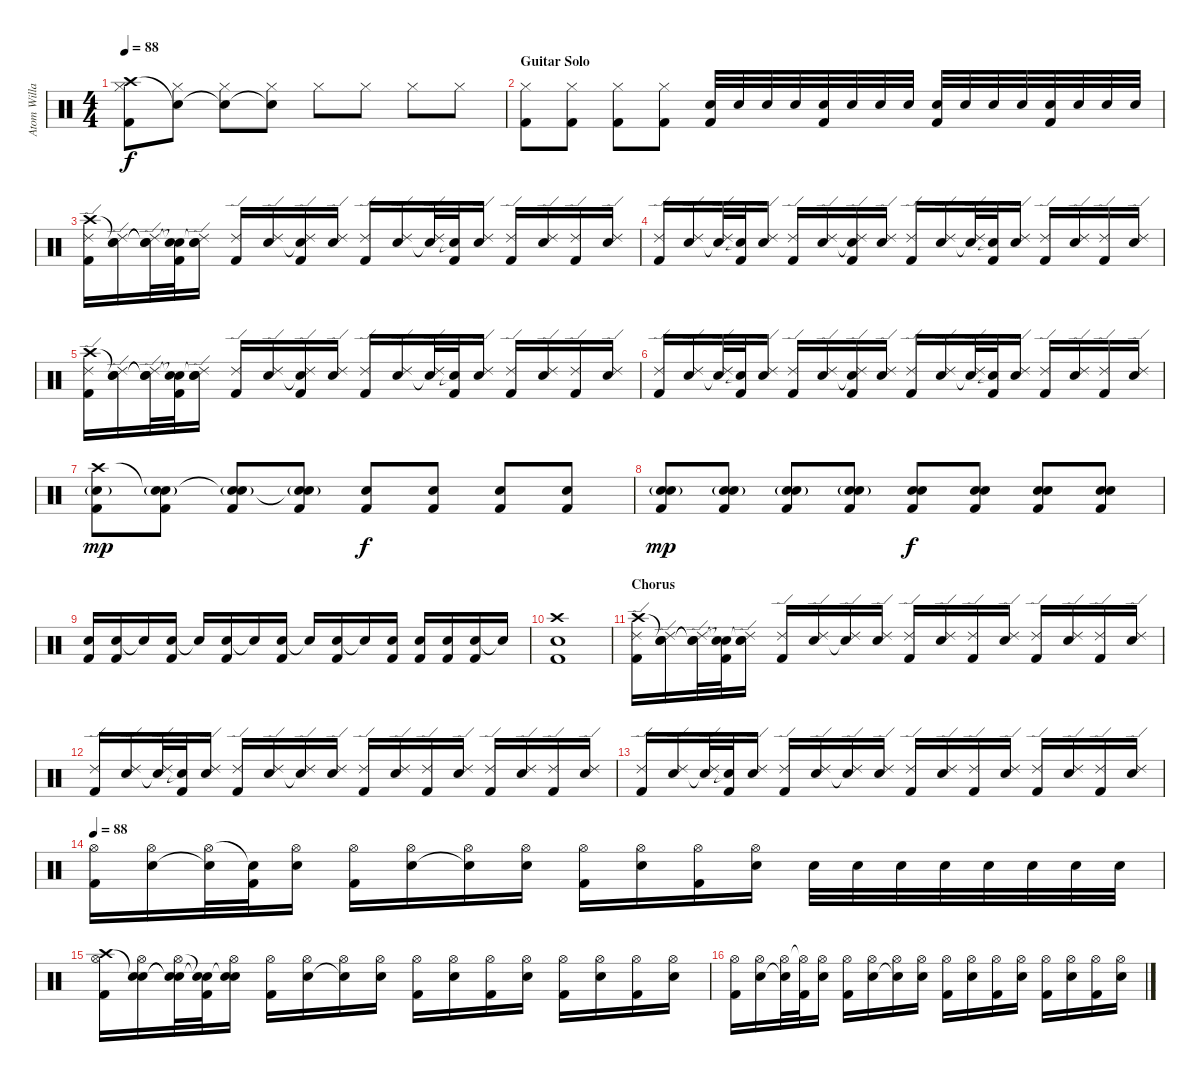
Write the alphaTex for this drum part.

\track ("Atom Willard (Drums)" "Atom Willa") {instrument percussion}
\staff {score}
\articulation defaults
\ts (4 4)
\tempo 88
\clef neutral
\ks c
("Crash high (hit)" "Hi-Hat (closed)" "Kick (hit) 2").8{dy f} ("Snare (hit)"{t} "Hi-Hat (closed)").8 ("Snare (hit)"{t} "Hi-Hat (closed)").8 ("Snare (hit)"{t} "Hi-Hat (closed)").8 "Hi-Hat (closed)".8 "Hi-Hat (closed)".8 "Hi-Hat (closed)".8 "Hi-Hat (closed)".8 |
\section ("" "Guitar Solo")
("Hi-Hat (closed)" "Kick (hit) 2").8 ("Hi-Hat (closed)" "Kick (hit) 2").8 ("Hi-Hat (closed)" "Kick (hit) 2").8 ("Hi-Hat (closed)" "Kick (hit) 2").8 ("Electric Snare (hit)" "Kick (hit) 2").32 "Electric Snare (hit)".32 "Electric Snare (hit)".32 "Electric Snare (hit)".32 ("Electric Snare (hit)" "Kick (hit) 2").32 "Electric Snare (hit)".32 "Electric Snare (hit)".32 "Electric Snare (hit)".32 ("Electric Snare (hit)" "Kick (hit) 2").32 "Electric Snare (hit)".32 "Electric Snare (hit)".32 "Electric Snare (hit)".32 ("Electric Snare (hit)" "Kick (hit) 2").32 "Electric Snare (hit)".32 "Electric Snare (hit)".32 "Electric Snare (hit)".32 |
("Crash high (hit)" "Ride (edge) 2" "Kick (hit) 2").16 ("Snare (hit)"{t} "Ride (edge) 2" "Electric Snare (hit)").16 ("Snare (hit)"{t} "Ride (edge) 2" "Snare (hit)"{t}).32 ("Snare (hit)"{t} "Snare (hit)"{t} "Kick (hit) 2").32 ("Snare (hit)"{t} "Ride (edge) 2" "Electric Snare (hit)").16 ("Ride (edge) 2" "Kick (hit) 2").16 ("Ride (edge) 2" "Electric Snare (hit)").16 ("Ride (edge) 2" "Electric Snare (hit)"{t} "Kick (hit) 2").16 ("Ride (edge) 2" "Electric Snare (hit)").16 ("Ride (edge) 2" "Kick (hit) 2").16 ("Ride (edge) 2" "Electric Snare (hit)").16 ("Ride (edge) 2" "Snare (hit)"{t}).32 ("Snare (hit)"{t} "Kick (hit) 2").32 ("Ride (edge) 2" "Electric Snare (hit)").16 ("Ride (edge) 2" "Kick (hit) 2").16 ("Ride (edge) 2" "Electric Snare (hit)").16 ("Ride (edge) 2" "Kick (hit) 2").16 ("Ride (edge) 2" "Electric Snare (hit)").16 |
("Ride (edge) 2" "Kick (hit) 2").16 ("Ride (edge) 2" "Electric Snare (hit)").16 ("Ride (edge) 2" "Snare (hit)"{t}).32 ("Snare (hit)"{t} "Kick (hit) 2").32 ("Ride (edge) 2" "Electric Snare (hit)").16 ("Ride (edge) 2" "Kick (hit) 2").16 ("Ride (edge) 2" "Electric Snare (hit)").16 ("Ride (edge) 2" "Electric Snare (hit)"{t} "Kick (hit) 2").16 ("Ride (edge) 2" "Electric Snare (hit)").16 ("Ride (edge) 2" "Kick (hit) 2").16 ("Ride (edge) 2" "Electric Snare (hit)").16 ("Ride (edge) 2" "Snare (hit)"{t}).32 ("Snare (hit)"{t} "Kick (hit) 2").32 ("Ride (edge) 2" "Electric Snare (hit)").16 ("Ride (edge) 2" "Kick (hit) 2").16 ("Ride (edge) 2" "Electric Snare (hit)").16 ("Ride (edge) 2" "Kick (hit) 2").16 ("Ride (edge) 2" "Electric Snare (hit)").16 |
("Crash high (hit)" "Ride (edge) 2" "Kick (hit) 2").16 ("Snare (hit)"{t} "Ride (edge) 2" "Electric Snare (hit)").16 ("Snare (hit)"{t} "Ride (edge) 2" "Snare (hit)"{t}).32 ("Snare (hit)"{t} "Snare (hit)"{t} "Kick (hit) 2").32 ("Snare (hit)"{t} "Ride (edge) 2" "Electric Snare (hit)").16 ("Ride (edge) 2" "Kick (hit) 2").16 ("Ride (edge) 2" "Electric Snare (hit)").16 ("Ride (edge) 2" "Electric Snare (hit)"{t} "Kick (hit) 2").16 ("Ride (edge) 2" "Electric Snare (hit)").16 ("Ride (edge) 2" "Kick (hit) 2").16 ("Ride (edge) 2" "Electric Snare (hit)").16 ("Ride (edge) 2" "Snare (hit)"{t}).32 ("Snare (hit)"{t} "Kick (hit) 2").32 ("Ride (edge) 2" "Electric Snare (hit)").16 ("Ride (edge) 2" "Kick (hit) 2").16 ("Ride (edge) 2" "Electric Snare (hit)").16 ("Ride (edge) 2" "Kick (hit) 2").16 ("Ride (edge) 2" "Electric Snare (hit)").16 |
("Ride (edge) 2" "Kick (hit) 2").16 ("Ride (edge) 2" "Electric Snare (hit)").16 ("Ride (edge) 2" "Snare (hit)"{t}).32 ("Snare (hit)"{t} "Kick (hit) 2").32 ("Ride (edge) 2" "Electric Snare (hit)").16 ("Ride (edge) 2" "Kick (hit) 2").16 ("Ride (edge) 2" "Electric Snare (hit)").16 ("Ride (edge) 2" "Electric Snare (hit)"{t} "Kick (hit) 2").16 ("Ride (edge) 2" "Electric Snare (hit)").16 ("Ride (edge) 2" "Kick (hit) 2").16 ("Ride (edge) 2" "Electric Snare (hit)").16 ("Ride (edge) 2" "Snare (hit)"{t}).32 ("Snare (hit)"{t} "Kick (hit) 2").32 ("Ride (edge) 2" "Electric Snare (hit)").16 ("Ride (edge) 2" "Kick (hit) 2").16 ("Ride (edge) 2" "Electric Snare (hit)").16 ("Ride (edge) 2" "Kick (hit) 2").16 ("Ride (edge) 2" "Electric Snare (hit)").16 |
("Crash high (hit)" "Electric Snare (hit)"{g} "Kick (hit) 2").8{dy mp} ("Snare (hit)"{t} "Electric Snare (hit)"{g} "Kick (hit) 2").8 ("Snare (hit)"{t} "Electric Snare (hit)"{g} "Kick (hit) 2").8 ("Snare (hit)"{t} "Electric Snare (hit)"{g} "Kick (hit) 2").8 ("Electric Snare (hit)" "Kick (hit) 2").8{dy f} ("Electric Snare (hit)" "Kick (hit) 2").8 ("Electric Snare (hit)" "Kick (hit) 2").8 ("Electric Snare (hit)" "Kick (hit) 2").8 |
("Electric Snare (hit)"{g} "Electric Snare (hit)" "Kick (hit) 2").8{dy mp} ("Electric Snare (hit)"{g} "Electric Snare (hit)" "Kick (hit) 2").8 ("Electric Snare (hit)"{g} "Electric Snare (hit)" "Kick (hit) 2").8 ("Electric Snare (hit)"{g} "Electric Snare (hit)" "Kick (hit) 2").8 ("Electric Snare (hit)" "Electric Snare (hit)" "Kick (hit) 2").8{dy f} ("Electric Snare (hit)" "Electric Snare (hit)" "Kick (hit) 2").8 ("Electric Snare (hit)" "Electric Snare (hit)" "Kick (hit) 2").8 ("Electric Snare (hit)" "Electric Snare (hit)" "Kick (hit) 2").8 |
("Electric Snare (hit)" "Kick (hit) 2").16 ("Electric Snare (hit)" "Kick (hit) 2").16 "Snare (hit)"{t}.16 ("Electric Snare (hit)" "Kick (hit) 2").16 "Snare (hit)"{t}.16 ("Electric Snare (hit)" "Kick (hit) 2").16 "Snare (hit)"{t}.16 ("Electric Snare (hit)" "Kick (hit) 2").16 "Snare (hit)"{t}.16 ("Electric Snare (hit)" "Kick (hit) 2").16 "Snare (hit)"{t}.16 ("Electric Snare (hit)" "Kick (hit) 2").16 ("Electric Snare (hit)" "Kick (hit) 2").16 ("Electric Snare (hit)" "Kick (hit) 2").16 ("Electric Snare (hit)" "Kick (hit) 2").16 "Snare (hit)"{t}.16 |
("Crash high (hit)" "Electric Snare (hit)" "Kick (hit) 2").1 |
\section ("" "Chorus")
("Crash high (hit)" "Ride (edge) 2" "Kick (hit) 2").16 ("Snare (hit)"{t} "Ride (edge) 2" "Electric Snare (hit)").16 ("Snare (hit)"{t} "Ride (edge) 2" "Snare (hit)"{t}).32 ("Snare (hit)"{t} "Snare (hit)"{t} "Kick (hit) 2").32 ("Snare (hit)"{t} "Ride (edge) 2" "Electric Snare (hit)").16 ("Ride (edge) 2" "Kick (hit) 2").16 ("Ride (edge) 2" "Electric Snare (hit)").16 ("Ride (edge) 2" "Snare (hit)"{t}).16 ("Ride (edge) 2" "Electric Snare (hit)").16 ("Ride (edge) 2" "Kick (hit) 2").16 ("Ride (edge) 2" "Electric Snare (hit)").16 ("Ride (edge) 2" "Kick (hit) 2").16 ("Ride (edge) 2" "Electric Snare (hit)").16 ("Ride (edge) 2" "Kick (hit) 2").16 ("Ride (edge) 2" "Electric Snare (hit)").16 ("Ride (edge) 2" "Kick (hit) 2").16 ("Ride (edge) 2" "Electric Snare (hit)").16 |
("Ride (edge) 2" "Kick (hit) 2").16 ("Ride (edge) 2" "Electric Snare (hit)").16 ("Ride (edge) 2" "Snare (hit)"{t}).32 ("Snare (hit)"{t} "Kick (hit) 2").32 ("Ride (edge) 2" "Electric Snare (hit)").16 ("Ride (edge) 2" "Kick (hit) 2").16 ("Ride (edge) 2" "Electric Snare (hit)").16 ("Ride (edge) 2" "Snare (hit)"{t}).16 ("Ride (edge) 2" "Electric Snare (hit)").16 ("Ride (edge) 2" "Kick (hit) 2").16 ("Ride (edge) 2" "Electric Snare (hit)").16 ("Ride (edge) 2" "Kick (hit) 2").16 ("Ride (edge) 2" "Electric Snare (hit)").16 ("Ride (edge) 2" "Kick (hit) 2").16 ("Ride (edge) 2" "Electric Snare (hit)").16 ("Ride (edge) 2" "Kick (hit) 2").16 ("Ride (edge) 2" "Electric Snare (hit)").16 |
("Ride (edge) 2" "Kick (hit) 2").16 ("Ride (edge) 2" "Electric Snare (hit)").16 ("Ride (edge) 2" "Snare (hit)"{t}).32 ("Snare (hit)"{t} "Kick (hit) 2").32 ("Ride (edge) 2" "Electric Snare (hit)").16 ("Ride (edge) 2" "Kick (hit) 2").16 ("Ride (edge) 2" "Electric Snare (hit)").16 ("Ride (edge) 2" "Snare (hit)"{t}).16 ("Ride (edge) 2" "Electric Snare (hit)").16 ("Ride (edge) 2" "Kick (hit) 2").16 ("Ride (edge) 2" "Electric Snare (hit)").16 ("Ride (edge) 2" "Kick (hit) 2").16 ("Ride (edge) 2" "Electric Snare (hit)").16 ("Ride (edge) 2" "Kick (hit) 2").16 ("Ride (edge) 2" "Electric Snare (hit)").16 ("Ride (edge) 2" "Kick (hit) 2").16 ("Ride (edge) 2" "Electric Snare (hit)").16 |
\tempo 88
("Hi-Hat (open)" "Kick (hit) 2").16 ("Hi-Hat (open)" "Electric Snare (hit)").16 ("Hi-Hat (open)" "Snare (hit)"{t}).32 ("Snare (hit)"{t} "Kick (hit) 2").32 ("Hi-Hat (open)" "Electric Snare (hit)").16 ("Hi-Hat (open)" "Kick (hit) 2").16 ("Hi-Hat (open)" "Electric Snare (hit)").16 ("Hi-Hat (open)" "Snare (hit)"{t}).16 ("Hi-Hat (open)" "Electric Snare (hit)").16 ("Hi-Hat (open)" "Kick (hit) 2").16 ("Hi-Hat (open)" "Electric Snare (hit)").16 ("Hi-Hat (open)" "Kick (hit) 2").16 ("Hi-Hat (open)" "Electric Snare (hit)").16 "Electric Snare (hit)".32 "Electric Snare (hit)".32 "Electric Snare (hit)".32 "Electric Snare (hit)".32 "Electric Snare (hit)".32 "Electric Snare (hit)".32 "Electric Snare (hit)".32 "Electric Snare (hit)".32 |
("Crash high (hit)" "Hi-Hat (open)" "Kick (hit) 2").16 ("Snare (hit)"{t} "Hi-Hat (open)" "Electric Snare (hit)").16 ("Snare (hit)"{t} "Hi-Hat (open)" "Snare (hit)"{t}).32 ("Snare (hit)"{t} "Snare (hit)"{t} "Kick (hit) 2").32 ("Snare (hit)"{t} "Hi-Hat (open)" "Electric Snare (hit)").16 ("Hi-Hat (open)" "Kick (hit) 2").16 ("Hi-Hat (open)" "Electric Snare (hit)").16 ("Hi-Hat (open)" "Snare (hit)"{t}).16 ("Hi-Hat (open)" "Electric Snare (hit)").16 ("Hi-Hat (open)" "Kick (hit) 2").16 ("Hi-Hat (open)" "Electric Snare (hit)").16 ("Hi-Hat (open)" "Kick (hit) 2").16 ("Hi-Hat (open)" "Electric Snare (hit)").16 ("Hi-Hat (open)" "Kick (hit) 2").16 ("Hi-Hat (open)" "Electric Snare (hit)").16 ("Hi-Hat (open)" "Kick (hit) 2").16 ("Hi-Hat (open)" "Electric Snare (hit)").16 |
("Hi-Hat (open)" "Kick (hit) 2").16 ("Hi-Hat (open)" "Electric Snare (hit)").16 ("Hi-Hat (open)" "Snare (hit)"{t}).32 ("Hi-Hat (open)"{t} "Kick (hit) 2").32 ("Hi-Hat (open)" "Electric Snare (hit)").16 ("Hi-Hat (open)" "Kick (hit) 2").16 ("Hi-Hat (open)" "Electric Snare (hit)").16 ("Hi-Hat (open)" "Snare (hit)"{t}).16 ("Hi-Hat (open)" "Electric Snare (hit)").16 ("Hi-Hat (open)" "Kick (hit) 2").16 ("Hi-Hat (open)" "Electric Snare (hit)").16 ("Hi-Hat (open)" "Kick (hit) 2").16 ("Hi-Hat (open)" "Electric Snare (hit)").16 ("Hi-Hat (open)" "Kick (hit) 2").16 ("Hi-Hat (open)" "Electric Snare (hit)").16 ("Hi-Hat (open)" "Kick (hit) 2").16 ("Hi-Hat (open)" "Electric Snare (hit)").16
